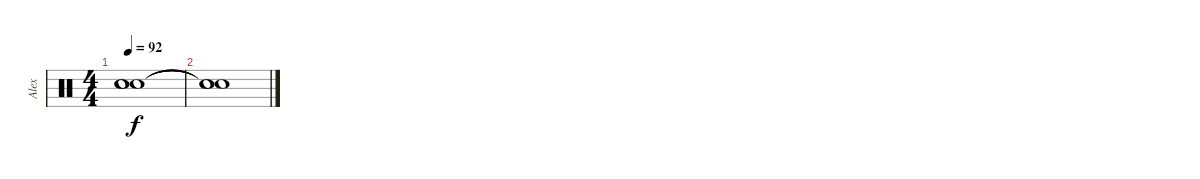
\track ("Alex" "Alex") {instrument percussion}
\staff
\articulation defaults
\ts (4 4)
\tempo 92
\clef neutral
\ks c
("Snare (hit)"{t} "Snare (hit)"{t} "Snare (hit)"{t}).1{dy f} |
("Snare (hit)"{t} "Snare (hit)"{t} "Snare (hit)"{t}).1
